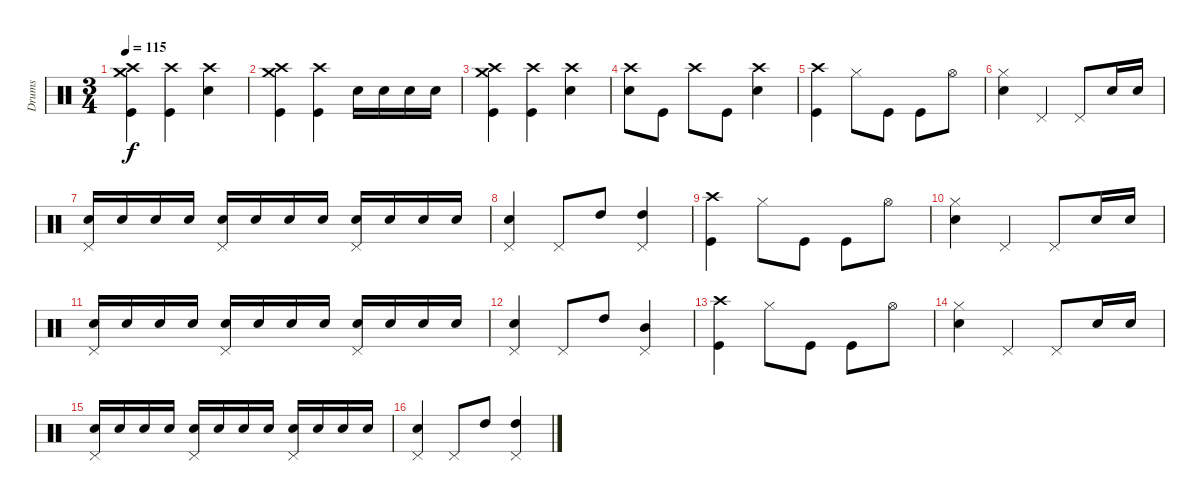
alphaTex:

\track ("Drums" "Drums") {instrument percussion}
\staff {score}
\articulation defaults
\ts (3 4)
\tempo 115
\clef neutral
\ks c
("Crash high (hit)" "Crash medium (hit)" "Kick (hit)").4{dy f} ("Crash high (hit)" "Kick (hit)").4 ("Crash high (hit)" "Snare (hit) 2").4 |
("Crash high (hit)" "Crash medium (hit)" "Kick (hit)").4 ("Crash high (hit)" "Kick (hit)").4 "Snare (hit) 2".16 "Snare (hit) 2".16 "Snare (hit) 2".16 "Snare (hit) 2".16 |
("Crash high (hit)" "Crash medium (hit)" "Kick (hit)").4 ("Crash high (hit)" "Kick (hit)").4 ("Crash high (hit)" "Snare (hit) 2").4 |
("Crash high (hit)" "Snare (hit) 2").8 "Kick (hit)".8 "Crash high (hit)".8 "Kick (hit)".8 ("Crash high (hit)" "Snare (hit) 2").4 |
("Crash high (hit)" "Kick (hit)").4 "Hi-Hat (closed)".8 "Kick (hit)".8 "Kick (hit)".8 "Hi-Hat (open)".8 |
("Hi-Hat (closed)" "Snare (hit) 2").4 "Pedal Hi-Hat (hit)".4 "Pedal Hi-Hat (hit)".8 "Snare (hit) 2".16 "Snare (hit) 2".16 |
("Pedal Hi-Hat (hit)" "Snare (hit) 2").16 "Snare (hit) 2".16 "Snare (hit) 2".16 "Snare (hit) 2".16 ("Pedal Hi-Hat (hit)" "Snare (hit) 2").16 "Snare (hit) 2".16 "Snare (hit) 2".16 "Snare (hit) 2".16 ("Pedal Hi-Hat (hit)" "Snare (hit) 2").16 "Snare (hit) 2".16 "Snare (hit) 2".16 "Snare (hit) 2".16 |
("Pedal Hi-Hat (hit)" "Snare (hit) 2").4 "Pedal Hi-Hat (hit)".8 "High Tom (hit)".8 ("Pedal Hi-Hat (hit)" "High Tom (hit)").4 |
("Crash high (hit)" "Kick (hit)").4 "Hi-Hat (closed)".8 "Kick (hit)".8 "Kick (hit)".8 "Hi-Hat (open)".8 |
("Hi-Hat (closed)" "Snare (hit) 2").4 "Pedal Hi-Hat (hit)".4 "Pedal Hi-Hat (hit)".8 "Snare (hit) 2".16 "Snare (hit) 2".16 |
("Pedal Hi-Hat (hit)" "Snare (hit) 2").16 "Snare (hit) 2".16 "Snare (hit) 2".16 "Snare (hit) 2".16 ("Pedal Hi-Hat (hit)" "Snare (hit) 2").16 "Snare (hit) 2".16 "Snare (hit) 2".16 "Snare (hit) 2".16 ("Pedal Hi-Hat (hit)" "Snare (hit) 2").16 "Snare (hit) 2".16 "Snare (hit) 2".16 "Snare (hit) 2".16 |
("Pedal Hi-Hat (hit)" "Snare (hit) 2").4 "Pedal Hi-Hat (hit)".8 "High Tom (hit)".8 ("Pedal Hi-Hat (hit)" "Mid Tom (hit)").4 |
("Crash high (hit)" "Kick (hit)").4 "Hi-Hat (closed)".8 "Kick (hit)".8 "Kick (hit)".8 "Hi-Hat (open)".8 |
("Hi-Hat (closed)" "Snare (hit) 2").4 "Pedal Hi-Hat (hit)".4 "Pedal Hi-Hat (hit)".8 "Snare (hit) 2".16 "Snare (hit) 2".16 |
("Pedal Hi-Hat (hit)" "Snare (hit) 2").16 "Snare (hit) 2".16 "Snare (hit) 2".16 "Snare (hit) 2".16 ("Pedal Hi-Hat (hit)" "Snare (hit) 2").16 "Snare (hit) 2".16 "Snare (hit) 2".16 "Snare (hit) 2".16 ("Pedal Hi-Hat (hit)" "Snare (hit) 2").16 "Snare (hit) 2".16 "Snare (hit) 2".16 "Snare (hit) 2".16 |
("Pedal Hi-Hat (hit)" "Snare (hit) 2").4 "Pedal Hi-Hat (hit)".8 "High Tom (hit)".8 ("Pedal Hi-Hat (hit)" "High Tom (hit)").4
